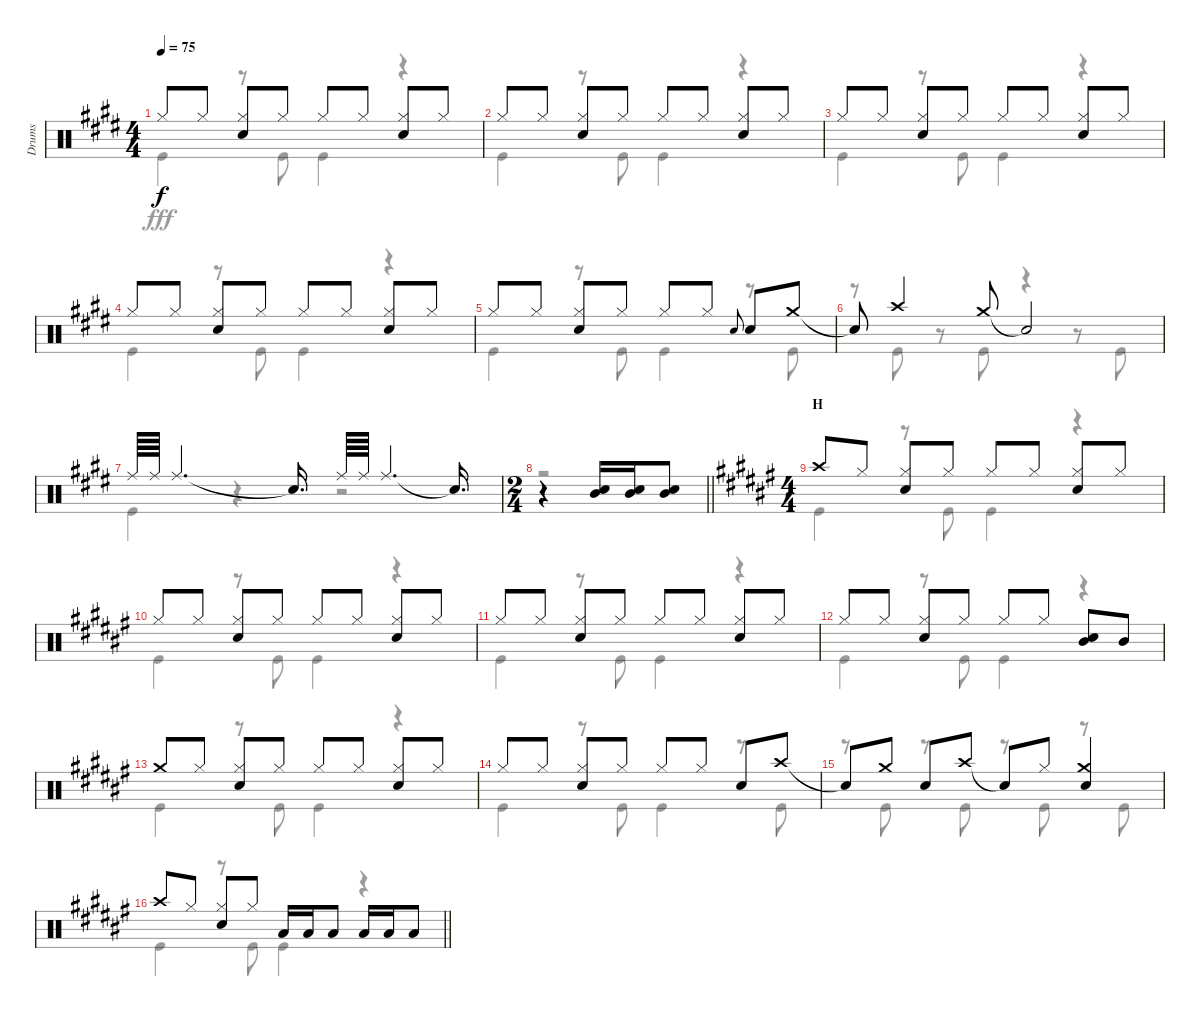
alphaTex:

\track ("Drums" "Drums") {instrument percussion}
\staff {score}
\articulation defaults
\voice
\ts (4 4)
\tempo 75
\clef neutral
\ks e "Hi-Hat (closed)".8{dy f} "Hi-Hat (closed)".8
("Hi-Hat (closed)" "Snare (hit) 2").8 "Hi-Hat (closed)".8 "Hi-Hat (closed)".8 "Hi-Hat (closed)".8 ("Hi-Hat (closed)" "Snare (hit) 2").8 "Hi-Hat (closed)".8 |
"Hi-Hat (closed)".8 "Hi-Hat (closed)".8 ("Hi-Hat (closed)" "Snare (hit) 2").8 "Hi-Hat (closed)".8 "Hi-Hat (closed)".8 "Hi-Hat (closed)".8 ("Hi-Hat (closed)" "Snare (hit) 2").8 "Hi-Hat (closed)".8 |
"Hi-Hat (closed)".8 "Hi-Hat (closed)".8 ("Hi-Hat (closed)" "Snare (hit) 2").8 "Hi-Hat (closed)".8 "Hi-Hat (closed)".8 "Hi-Hat (closed)".8 ("Hi-Hat (closed)" "Snare (hit) 2").8 "Hi-Hat (closed)".8 |
"Hi-Hat (closed)".8 "Hi-Hat (closed)".8 ("Hi-Hat (closed)" "Snare (hit) 2").8 "Hi-Hat (closed)".8 "Hi-Hat (closed)".8 "Hi-Hat (closed)".8 ("Hi-Hat (closed)" "Snare (hit) 2").8 "Hi-Hat (closed)".8 |
"Hi-Hat (closed)".8 "Hi-Hat (closed)".8 ("Hi-Hat (closed)" "Snare (hit) 2").8 "Hi-Hat (closed)".8 "Hi-Hat (closed)".8 "Hi-Hat (closed)".8 "Snare (hit) 2".8{gr onbeat} "Snare (hit) 2".8 "Crash medium (hit)".8 |
"Snare (hit)"{t}.8 "Crash high (hit)".4 "Crash medium (hit)".8 "Snare (hit)"{t}.2 |
"Ride (middle)".64 "Ride (middle)".64 "Ride (middle)".4{d} "Snare (hit)"{t}.16{d} "Ride (middle)".64 "Ride (middle)".64 "Ride (middle)".4{d} "Snare (hit)"{t}.16{d} |
\ts (2 4)
\barLineRight lightlight
r.4 ("Mid Tom (hit)" "Snare (hit) 2").16 ("Mid Tom (hit)" "Snare (hit) 2").16 ("Mid Tom (hit)" "Snare (hit) 2").8 |
\ts (4 4)
\section ("" "H")
\ks f# "Crash high (hit)".8 "Hi-Hat (closed)".8
("Hi-Hat (closed)" "Snare (hit) 2").8 "Hi-Hat (closed)".8 "Hi-Hat (closed)".8 "Hi-Hat (closed)".8 ("Hi-Hat (closed)" "Snare (hit) 2").8 "Hi-Hat (closed)".8 |
"Hi-Hat (closed)".8 "Hi-Hat (closed)".8 ("Hi-Hat (closed)" "Snare (hit) 2").8 "Hi-Hat (closed)".8 "Hi-Hat (closed)".8 "Hi-Hat (closed)".8 ("Hi-Hat (closed)" "Snare (hit) 2").8 "Hi-Hat (closed)".8 |
"Hi-Hat (closed)".8 "Hi-Hat (closed)".8 ("Hi-Hat (closed)" "Snare (hit) 2").8 "Hi-Hat (closed)".8 "Hi-Hat (closed)".8 "Hi-Hat (closed)".8 ("Hi-Hat (closed)" "Snare (hit) 2").8 "Hi-Hat (closed)".8 |
"Hi-Hat (closed)".8 "Hi-Hat (closed)".8 ("Hi-Hat (closed)" "Snare (hit) 2").8 "Hi-Hat (closed)".8 "Hi-Hat (closed)".8 "Hi-Hat (closed)".8 ("Mid Tom (hit)" "Snare (hit) 2").8 "Mid Tom (hit)".8 |
"Crash medium (hit)".8 "Hi-Hat (closed)".8 ("Hi-Hat (closed)" "Snare (hit) 2").8 "Hi-Hat (closed)".8 "Hi-Hat (closed)".8 "Hi-Hat (closed)".8 ("Hi-Hat (closed)" "Snare (hit) 2").8 "Hi-Hat (closed)".8 |
"Hi-Hat (closed)".8 "Hi-Hat (closed)".8 ("Hi-Hat (closed)" "Snare (hit) 2").8 "Hi-Hat (closed)".8 "Hi-Hat (closed)".8 "Hi-Hat (closed)".8 "Snare (hit) 2".8 "Crash high (hit)".8 |
"Snare (hit)"{t}.8 "Crash medium (hit)".8 "Snare (hit) 2".8 "Crash high (hit)".8 "Snare (hit)"{t}.8 "Hi-Hat (closed)".8 ("Crash medium (hit)" "Snare (hit) 2").4 |
\barLineRight lightlight "Crash high (hit)".8 "Hi-Hat (closed)".8
("Hi-Hat (closed)" "Snare (hit) 2").8 "Hi-Hat (closed)".8 "Low Tom (hit)".16 "Low Tom (hit)".16 "Low Tom (hit)".8 "Low Tom (hit)".16 "Low Tom (hit)".16 "Low Tom (hit)".8
\voice
\clef neutral
\ottava regular
\simile none
\ks e "Kick (hit)".4{dy fff}
r.8 "Kick (hit)".8 "Kick (hit)".4 r.4 |
"Kick (hit)".4 r.8 "Kick (hit)".8 "Kick (hit)".4 r.4 |
"Kick (hit)".4 r.8 "Kick (hit)".8 "Kick (hit)".4 r.4 |
"Kick (hit)".4 r.8 "Kick (hit)".8 "Kick (hit)".4 r.4 |
"Kick (hit)".4 r.8 "Kick (hit)".8 "Kick (hit)".4 r.8 "Kick (hit)".8 |
r.8 "Kick (hit)".8 r.8 "Kick (hit)".8 r.4 r.8 "Kick (hit)".8 |
"Kick (hit)".4 r.4 r.2 |
\barLineRight lightlight
r.2 |
\ks f# "Kick (hit)".4
r.8 "Kick (hit)".8 "Kick (hit)".4 r.4 |
"Kick (hit)".4 r.8 "Kick (hit)".8 "Kick (hit)".4 r.4 |
"Kick (hit)".4 r.8 "Kick (hit)".8 "Kick (hit)".4 r.4 |
"Kick (hit)".4 r.8 "Kick (hit)".8 "Kick (hit)".4 r.4 |
"Kick (hit)".4 r.8 "Kick (hit)".8 "Kick (hit)".4 r.4 |
"Kick (hit)".4 r.8 "Kick (hit)".8 "Kick (hit)".4 r.8 "Kick (hit)".8 |
r.8 "Kick (hit)".8 r.8 "Kick (hit)".8 r.8 "Kick (hit)".8 r.8 "Kick (hit)".8 |
\barLineRight lightlight "Kick (hit)".4
r.8 "Kick (hit)".8 "Kick (hit)".4 r.4
